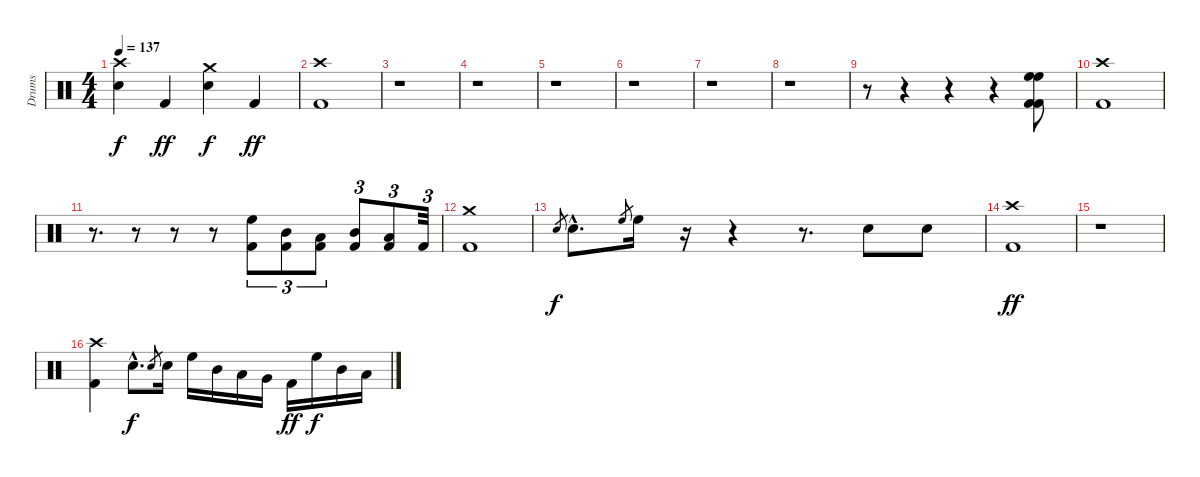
\track ("Drums" "Drums") {instrument percussion}
\staff {score}
\articulation defaults
\ts (4 4)
\tempo 137
\clef neutral
\ks c
("Crash high (hit)" "Electric Snare (hit)").4{dy f} "Kick (hit) 2".4{dy ff} ("Crash medium (hit)" "Electric Snare (hit)").4{dy f} "Kick (hit) 2".4{dy ff} |
("Crash high (hit)" "Kick (hit) 2").1 |
r.1 |
r.1 |
r.1 |
r.1 |
r.1 |
r.1 |
r.8 r.4 r.4 r.4 ("High Floor Tom (hit)" "High Floor Tom (hit)" "Kick (hit) 2" "Kick (hit) 2").8 |
("Crash high (hit)" "Kick (hit) 2").1 |
r.8{d} r.8 r.8 r.8 ("High Floor Tom (hit)" "Kick (hit) 2").8{tu (3 2)} ("Mid Tom (hit)" "Kick (hit) 2").8{tu (3 2)} ("Low Tom (hit)" "Kick (hit) 2").8{tu (3 2)} ("Mid Tom (hit)" "Kick (hit) 2").8{tu (3 2)} ("Low Tom (hit)" "Kick (hit) 2").8{tu (3 2)} "Kick (hit) 2".32{tu (3 2)} |
("Crash medium (hit)" "Kick (hit) 2").1 |
"Electric Snare (hit)".8{gr dy f} "Electric Snare (hit)"{hac}.8{d} "High Floor Tom (hit)".8{gr} "High Floor Tom (hit)".16 r.16 r.4 r.8{d} "Electric Snare (hit)".8 "Electric Snare (hit)".8 |
("Crash high (hit)" "Kick (hit) 2").1{dy ff} |
r.1 |
("Crash high (hit)" "Kick (hit) 2").4 "Electric Snare (hit)"{hac}.8{d dy f} "Electric Snare (hit)".8{gr} "Electric Snare (hit)".16 "High Floor Tom (hit)".16 "Mid Tom (hit)".16 "Low Tom (hit)".16 "Very Low Tom (hit)".16 "Kick (hit) 2".16{dy ff} "High Floor Tom (hit)".16{dy f} "Mid Tom (hit)".16 "Low Tom (hit)".16
